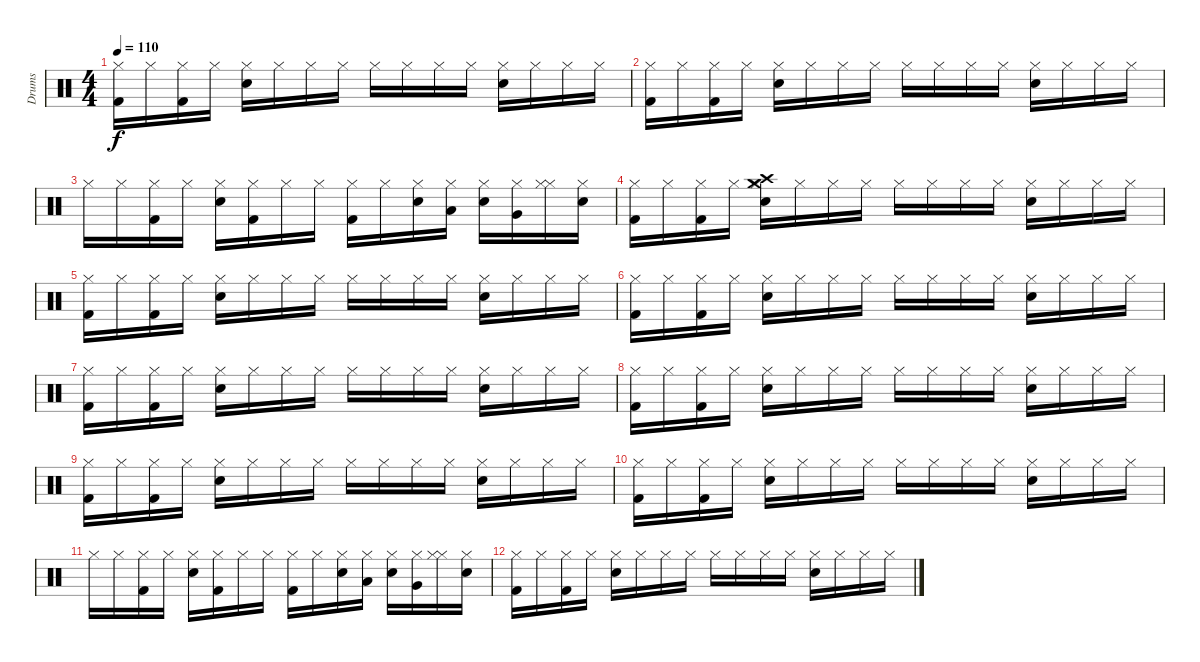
\track ("Drums" "Drums") {instrument percussion}
\staff {score}
\articulation defaults
\ts (4 4)
\tempo 110
\clef neutral
\ks c
("Hi-Hat (closed)" "Kick (hit) 2").16{dy f} "Hi-Hat (closed)".16 ("Hi-Hat (closed)" "Kick (hit) 2").16 "Hi-Hat (closed)".16 ("Hi-Hat (closed)" "Snare (hit) 2").16 "Hi-Hat (closed)".16 "Hi-Hat (closed)".16 "Hi-Hat (closed)".16 "Hi-Hat (closed)".16 "Hi-Hat (closed)".16 "Hi-Hat (closed)".16 "Hi-Hat (closed)".16 ("Hi-Hat (closed)" "Snare (hit) 2").16 "Hi-Hat (closed)".16 "Hi-Hat (closed)".16 "Hi-Hat (closed)".16 |
("Hi-Hat (closed)" "Kick (hit) 2").16 "Hi-Hat (closed)".16 ("Hi-Hat (closed)" "Kick (hit) 2").16 "Hi-Hat (closed)".16 ("Hi-Hat (closed)" "Snare (hit) 2").16 "Hi-Hat (closed)".16 "Hi-Hat (closed)".16 "Hi-Hat (closed)".16 "Hi-Hat (closed)".16 "Hi-Hat (closed)".16 "Hi-Hat (closed)".16 "Hi-Hat (closed)".16 ("Hi-Hat (closed)" "Snare (hit) 2").16 "Hi-Hat (closed)".16 "Hi-Hat (closed)".16 "Hi-Hat (closed)".16 |
"Hi-Hat (closed)".16 "Hi-Hat (closed)".16 ("Hi-Hat (closed)" "Kick (hit) 2").16 "Hi-Hat (closed)".16 ("Hi-Hat (closed)" "Snare (hit) 2").16 ("Hi-Hat (closed)" "Kick (hit) 2").16 "Hi-Hat (closed)".16 "Hi-Hat (closed)".16 ("Hi-Hat (closed)" "Kick (hit) 2").16 "Hi-Hat (closed)".16 ("Hi-Hat (closed)" "Snare (hit) 2").16 ("Hi-Hat (closed)" "Low Tom (hit)").16 ("Hi-Hat (closed)" "Snare (hit) 2").16 ("Hi-Hat (closed)" "Very Low Tom (hit)").16 ("Hi-Hat (closed)" "Hi-Hat (closed)").16 ("Hi-Hat (closed)" "Snare (hit) 2").16 |
("Hi-Hat (closed)" "Kick (hit) 2").16 "Hi-Hat (closed)".16 ("Hi-Hat (closed)" "Kick (hit) 2").16 "Hi-Hat (closed)".16 ("Hi-Hat (closed)" "Crash medium (hit)" "Crash high (hit)" "Snare (hit) 2").16 "Hi-Hat (closed)".16 "Hi-Hat (closed)".16 "Hi-Hat (closed)".16 "Hi-Hat (closed)".16 "Hi-Hat (closed)".16 "Hi-Hat (closed)".16 "Hi-Hat (closed)".16 ("Hi-Hat (closed)" "Snare (hit) 2").16 "Hi-Hat (closed)".16 "Hi-Hat (closed)".16 "Hi-Hat (closed)".16 |
("Hi-Hat (closed)" "Kick (hit) 2").16 "Hi-Hat (closed)".16 ("Hi-Hat (closed)" "Kick (hit) 2").16 "Hi-Hat (closed)".16 ("Hi-Hat (closed)" "Snare (hit) 2").16 "Hi-Hat (closed)".16 "Hi-Hat (closed)".16 "Hi-Hat (closed)".16 "Hi-Hat (closed)".16 "Hi-Hat (closed)".16 "Hi-Hat (closed)".16 "Hi-Hat (closed)".16 ("Hi-Hat (closed)" "Snare (hit) 2").16 "Hi-Hat (closed)".16 "Hi-Hat (closed)".16 "Hi-Hat (closed)".16 |
("Hi-Hat (closed)" "Kick (hit) 2").16 "Hi-Hat (closed)".16 ("Hi-Hat (closed)" "Kick (hit) 2").16 "Hi-Hat (closed)".16 ("Hi-Hat (closed)" "Snare (hit) 2").16 "Hi-Hat (closed)".16 "Hi-Hat (closed)".16 "Hi-Hat (closed)".16 "Hi-Hat (closed)".16 "Hi-Hat (closed)".16 "Hi-Hat (closed)".16 "Hi-Hat (closed)".16 ("Hi-Hat (closed)" "Snare (hit) 2").16 "Hi-Hat (closed)".16 "Hi-Hat (closed)".16 "Hi-Hat (closed)".16 |
("Hi-Hat (closed)" "Kick (hit) 2").16 "Hi-Hat (closed)".16 ("Hi-Hat (closed)" "Kick (hit) 2").16 "Hi-Hat (closed)".16 ("Hi-Hat (closed)" "Snare (hit) 2").16 "Hi-Hat (closed)".16 "Hi-Hat (closed)".16 "Hi-Hat (closed)".16 "Hi-Hat (closed)".16 "Hi-Hat (closed)".16 "Hi-Hat (closed)".16 "Hi-Hat (closed)".16 ("Hi-Hat (closed)" "Snare (hit) 2").16 "Hi-Hat (closed)".16 "Hi-Hat (closed)".16 "Hi-Hat (closed)".16 |
("Hi-Hat (closed)" "Kick (hit) 2").16 "Hi-Hat (closed)".16 ("Hi-Hat (closed)" "Kick (hit) 2").16 "Hi-Hat (closed)".16 ("Hi-Hat (closed)" "Snare (hit) 2").16 "Hi-Hat (closed)".16 "Hi-Hat (closed)".16 "Hi-Hat (closed)".16 "Hi-Hat (closed)".16 "Hi-Hat (closed)".16 "Hi-Hat (closed)".16 "Hi-Hat (closed)".16 ("Hi-Hat (closed)" "Snare (hit) 2").16 "Hi-Hat (closed)".16 "Hi-Hat (closed)".16 "Hi-Hat (closed)".16 |
("Hi-Hat (closed)" "Kick (hit) 2").16 "Hi-Hat (closed)".16 ("Hi-Hat (closed)" "Kick (hit) 2").16 "Hi-Hat (closed)".16 ("Hi-Hat (closed)" "Snare (hit) 2").16 "Hi-Hat (closed)".16 "Hi-Hat (closed)".16 "Hi-Hat (closed)".16 "Hi-Hat (closed)".16 "Hi-Hat (closed)".16 "Hi-Hat (closed)".16 "Hi-Hat (closed)".16 ("Hi-Hat (closed)" "Snare (hit) 2").16 "Hi-Hat (closed)".16 "Hi-Hat (closed)".16 "Hi-Hat (closed)".16 |
("Hi-Hat (closed)" "Kick (hit) 2").16 "Hi-Hat (closed)".16 ("Hi-Hat (closed)" "Kick (hit) 2").16 "Hi-Hat (closed)".16 ("Hi-Hat (closed)" "Snare (hit) 2").16 "Hi-Hat (closed)".16 "Hi-Hat (closed)".16 "Hi-Hat (closed)".16 "Hi-Hat (closed)".16 "Hi-Hat (closed)".16 "Hi-Hat (closed)".16 "Hi-Hat (closed)".16 ("Hi-Hat (closed)" "Snare (hit) 2").16 "Hi-Hat (closed)".16 "Hi-Hat (closed)".16 "Hi-Hat (closed)".16 |
"Hi-Hat (closed)".16 "Hi-Hat (closed)".16 ("Hi-Hat (closed)" "Kick (hit) 2").16 "Hi-Hat (closed)".16 ("Hi-Hat (closed)" "Snare (hit) 2").16 ("Hi-Hat (closed)" "Kick (hit) 2").16 "Hi-Hat (closed)".16 "Hi-Hat (closed)".16 ("Hi-Hat (closed)" "Kick (hit) 2").16 "Hi-Hat (closed)".16 ("Hi-Hat (closed)" "Snare (hit) 2").16 ("Hi-Hat (closed)" "Low Tom (hit)").16 ("Hi-Hat (closed)" "Snare (hit) 2").16 ("Hi-Hat (closed)" "Very Low Tom (hit)").16 ("Hi-Hat (closed)" "Hi-Hat (closed)").16 ("Hi-Hat (closed)" "Snare (hit) 2").16 |
("Hi-Hat (closed)" "Kick (hit) 2").16 "Hi-Hat (closed)".16 ("Hi-Hat (closed)" "Kick (hit) 2").16 "Hi-Hat (closed)".16 ("Hi-Hat (closed)" "Snare (hit) 2").16 "Hi-Hat (closed)".16 "Hi-Hat (closed)".16 "Hi-Hat (closed)".16 "Hi-Hat (closed)".16 "Hi-Hat (closed)".16 "Hi-Hat (closed)".16 "Hi-Hat (closed)".16 ("Hi-Hat (closed)" "Snare (hit) 2").16 "Hi-Hat (closed)".16 "Hi-Hat (closed)".16 "Hi-Hat (closed)".16
